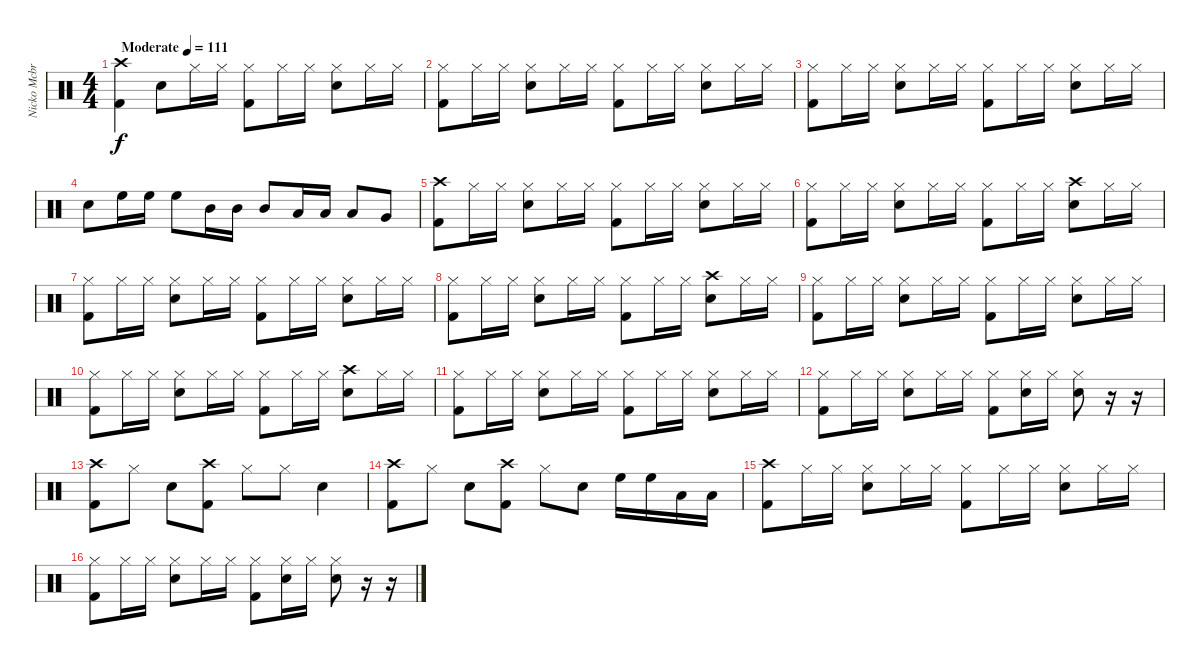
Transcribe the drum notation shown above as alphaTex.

\track ("Nicko Mcbrain" "Nicko Mcbr") {instrument percussion}
\staff {score}
\articulation defaults
\ts (4 4)
\tempo (111 "Moderate")
\clef neutral
\ks c
("Crash high (hit)" "Kick (hit) 2").4{dy f} "Snare (hit) 2".8 "Hi-Hat (closed)".16 "Hi-Hat (closed)".16 ("Hi-Hat (closed)" "Kick (hit) 2").8 "Hi-Hat (closed)".16 "Hi-Hat (closed)".16 ("Hi-Hat (closed)" "Snare (hit) 2").8 "Hi-Hat (closed)".16 "Hi-Hat (closed)".16 |
("Hi-Hat (closed)" "Kick (hit) 2").8 "Hi-Hat (closed)".16 "Hi-Hat (closed)".16 ("Hi-Hat (closed)" "Snare (hit) 2").8 "Hi-Hat (closed)".16 "Hi-Hat (closed)".16 ("Hi-Hat (closed)" "Kick (hit) 2").8 "Hi-Hat (closed)".16 "Hi-Hat (closed)".16 ("Hi-Hat (closed)" "Snare (hit) 2").8 "Hi-Hat (closed)".16 "Hi-Hat (closed)".16 |
("Hi-Hat (closed)" "Kick (hit) 2").8 "Hi-Hat (closed)".16 "Hi-Hat (closed)".16 ("Hi-Hat (closed)" "Snare (hit) 2").8 "Hi-Hat (closed)".16 "Hi-Hat (closed)".16 ("Hi-Hat (closed)" "Kick (hit) 2").8 "Hi-Hat (closed)".16 "Hi-Hat (closed)".16 ("Hi-Hat (closed)" "Snare (hit) 2").8 "Hi-Hat (closed)".16 "Hi-Hat (closed)".16 |
"Snare (hit) 2".8 "High Floor Tom (hit)".16 "High Floor Tom (hit)".16 "High Floor Tom (hit)".8 "Mid Tom (hit)".16 "Mid Tom (hit)".16 "Mid Tom (hit)".8 "Low Tom (hit)".16 "Low Tom (hit)".16 "Low Tom (hit)".8 "Very Low Tom (hit)".8 |
("Crash high (hit)" "Kick (hit) 2").8 "Hi-Hat (closed)".16 "Hi-Hat (closed)".16 ("Hi-Hat (closed)" "Snare (hit) 2").8 "Hi-Hat (closed)".16 "Hi-Hat (closed)".16 ("Hi-Hat (closed)" "Kick (hit) 2").8 "Hi-Hat (closed)".16 "Hi-Hat (closed)".16 ("Hi-Hat (closed)" "Snare (hit) 2").8 "Hi-Hat (closed)".16 "Hi-Hat (closed)".16 |
("Hi-Hat (closed)" "Kick (hit) 2").8 "Hi-Hat (closed)".16 "Hi-Hat (closed)".16 ("Hi-Hat (closed)" "Snare (hit) 2").8 "Hi-Hat (closed)".16 "Hi-Hat (closed)".16 ("Hi-Hat (closed)" "Kick (hit) 2").8 "Hi-Hat (closed)".16 "Hi-Hat (closed)".16 ("Crash high (hit)" "Snare (hit) 2").8 "Hi-Hat (closed)".16 "Hi-Hat (closed)".16 |
("Hi-Hat (closed)" "Kick (hit) 2").8 "Hi-Hat (closed)".16 "Hi-Hat (closed)".16 ("Hi-Hat (closed)" "Snare (hit) 2").8 "Hi-Hat (closed)".16 "Hi-Hat (closed)".16 ("Hi-Hat (closed)" "Kick (hit) 2").8 "Hi-Hat (closed)".16 "Hi-Hat (closed)".16 ("Hi-Hat (closed)" "Snare (hit) 2").8 "Hi-Hat (closed)".16 "Hi-Hat (closed)".16 |
("Hi-Hat (closed)" "Kick (hit) 2").8 "Hi-Hat (closed)".16 "Hi-Hat (closed)".16 ("Hi-Hat (closed)" "Snare (hit) 2").8 "Hi-Hat (closed)".16 "Hi-Hat (closed)".16 ("Hi-Hat (closed)" "Kick (hit) 2").8 "Hi-Hat (closed)".16 "Hi-Hat (closed)".16 ("Crash high (hit)" "Snare (hit) 2").8 "Hi-Hat (closed)".16 "Hi-Hat (closed)".16 |
("Hi-Hat (closed)" "Kick (hit) 2").8 "Hi-Hat (closed)".16 "Hi-Hat (closed)".16 ("Hi-Hat (closed)" "Snare (hit) 2").8 "Hi-Hat (closed)".16 "Hi-Hat (closed)".16 ("Hi-Hat (closed)" "Kick (hit) 2").8 "Hi-Hat (closed)".16 "Hi-Hat (closed)".16 ("Hi-Hat (closed)" "Snare (hit) 2").8 "Hi-Hat (closed)".16 "Hi-Hat (closed)".16 |
("Hi-Hat (closed)" "Kick (hit) 2").8 "Hi-Hat (closed)".16 "Hi-Hat (closed)".16 ("Hi-Hat (closed)" "Snare (hit) 2").8 "Hi-Hat (closed)".16 "Hi-Hat (closed)".16 ("Hi-Hat (closed)" "Kick (hit) 2").8 "Hi-Hat (closed)".16 "Hi-Hat (closed)".16 ("Crash high (hit)" "Snare (hit) 2").8 "Hi-Hat (closed)".16 "Hi-Hat (closed)".16 |
("Hi-Hat (closed)" "Kick (hit) 2").8 "Hi-Hat (closed)".16 "Hi-Hat (closed)".16 ("Hi-Hat (closed)" "Snare (hit) 2").8 "Hi-Hat (closed)".16 "Hi-Hat (closed)".16 ("Hi-Hat (closed)" "Kick (hit) 2").8 "Hi-Hat (closed)".16 "Hi-Hat (closed)".16 ("Hi-Hat (closed)" "Snare (hit) 2").8 "Hi-Hat (closed)".16 "Hi-Hat (closed)".16 |
("Hi-Hat (closed)" "Kick (hit) 2").8 "Hi-Hat (closed)".16 "Hi-Hat (closed)".16 ("Hi-Hat (closed)" "Snare (hit) 2").8 "Hi-Hat (closed)".16 "Hi-Hat (closed)".16 ("Hi-Hat (closed)" "Kick (hit) 2").8 ("Hi-Hat (closed)" "Snare (hit) 2").16 "Hi-Hat (closed)".16 ("Hi-Hat (closed)" "Snare (hit) 2").8 r.16 r.16 |
("Crash high (hit)" "Kick (hit) 2").8 "Hi-Hat (closed)".8 "Snare (hit) 2".8 ("Crash high (hit)" "Kick (hit) 2").8 "Hi-Hat (closed)".8 "Hi-Hat (closed)".8 "Snare (hit) 2".4 |
("Crash high (hit)" "Kick (hit) 2").8 "Hi-Hat (closed)".8 "Snare (hit) 2".8 ("Crash high (hit)" "Kick (hit) 2").8 "Hi-Hat (closed)".8 "Snare (hit) 2".8 "High Floor Tom (hit)".16 "High Floor Tom (hit)".16 "Low Tom (hit)".16 "Low Tom (hit)".16 |
("Crash high (hit)" "Kick (hit) 2").8 "Hi-Hat (closed)".16 "Hi-Hat (closed)".16 ("Hi-Hat (closed)" "Snare (hit) 2").8 "Hi-Hat (closed)".16 "Hi-Hat (closed)".16 ("Hi-Hat (closed)" "Kick (hit) 2").8 "Hi-Hat (closed)".16 "Hi-Hat (closed)".16 ("Hi-Hat (closed)" "Snare (hit) 2").8 "Hi-Hat (closed)".16 "Hi-Hat (closed)".16 |
("Hi-Hat (closed)" "Kick (hit) 2").8 "Hi-Hat (closed)".16 "Hi-Hat (closed)".16 ("Hi-Hat (closed)" "Snare (hit) 2").8 "Hi-Hat (closed)".16 "Hi-Hat (closed)".16 ("Hi-Hat (closed)" "Kick (hit) 2").8 ("Hi-Hat (closed)" "Snare (hit) 2").16 "Hi-Hat (closed)".16 ("Hi-Hat (closed)" "Snare (hit) 2").8 r.16 r.16
